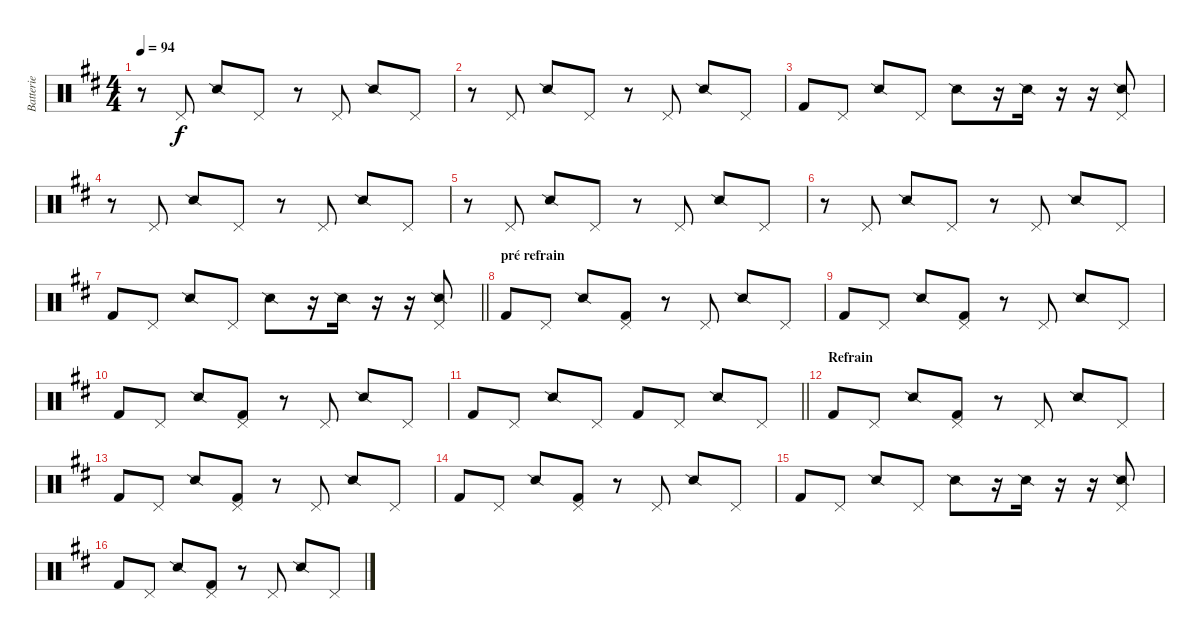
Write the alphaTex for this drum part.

\track ("Batterie" "Batterie") {instrument percussion}
\staff {score}
\articulation defaults
\ts (4 4)
\tempo 94
\clef neutral
\ks d
r.8{dy f} "Pedal Hi-Hat (hit)".8 "Snare (side stick) 2".8 "Pedal Hi-Hat (hit)".8 r.8 "Pedal Hi-Hat (hit)".8 "Snare (side stick) 2".8 "Pedal Hi-Hat (hit)".8 |
r.8 "Pedal Hi-Hat (hit)".8 "Snare (side stick) 2".8 "Pedal Hi-Hat (hit)".8 r.8 "Pedal Hi-Hat (hit)".8 "Snare (side stick) 2".8 "Pedal Hi-Hat (hit)".8 |
"Kick (hit) 2".8 "Pedal Hi-Hat (hit)".8 "Snare (side stick) 2".8 "Pedal Hi-Hat (hit)".8 "Snare (side stick) 2".8 r.16 "Snare (side stick) 2".16 r.16 r.16 ("Pedal Hi-Hat (hit)" "Snare (side stick) 2").8 |
r.8 "Pedal Hi-Hat (hit)".8 "Snare (side stick) 2".8 "Pedal Hi-Hat (hit)".8 r.8 "Pedal Hi-Hat (hit)".8 "Snare (side stick) 2".8 "Pedal Hi-Hat (hit)".8 |
r.8 "Pedal Hi-Hat (hit)".8 "Snare (side stick) 2".8 "Pedal Hi-Hat (hit)".8 r.8 "Pedal Hi-Hat (hit)".8 "Snare (side stick) 2".8 "Pedal Hi-Hat (hit)".8 |
r.8 "Pedal Hi-Hat (hit)".8 "Snare (side stick) 2".8 "Pedal Hi-Hat (hit)".8 r.8 "Pedal Hi-Hat (hit)".8 "Snare (side stick) 2".8 "Pedal Hi-Hat (hit)".8 |
\barLineRight lightlight "Kick (hit) 2".8 "Pedal Hi-Hat (hit)".8 "Snare (side stick) 2".8 "Pedal Hi-Hat (hit)".8 "Snare (side stick) 2".8
r.16 "Snare (side stick) 2".16 r.16 r.16 ("Pedal Hi-Hat (hit)" "Snare (side stick) 2").8 |
\section ("" "pré refrain")
"Kick (hit) 2".8 "Pedal Hi-Hat (hit)".8 "Snare (side stick) 2".8 ("Pedal Hi-Hat (hit)" "Kick (hit) 2").8 r.8 "Pedal Hi-Hat (hit)".8 "Snare (side stick) 2".8 "Pedal Hi-Hat (hit)".8 |
"Kick (hit) 2".8 "Pedal Hi-Hat (hit)".8 "Snare (side stick) 2".8 ("Pedal Hi-Hat (hit)" "Kick (hit) 2").8 r.8 "Pedal Hi-Hat (hit)".8 "Snare (side stick) 2".8 "Pedal Hi-Hat (hit)".8 |
"Kick (hit) 2".8 "Pedal Hi-Hat (hit)".8 "Snare (side stick) 2".8 ("Pedal Hi-Hat (hit)" "Kick (hit) 2").8 r.8 "Pedal Hi-Hat (hit)".8 "Snare (side stick) 2".8 "Pedal Hi-Hat (hit)".8 |
\barLineRight lightlight "Kick (hit) 2".8 "Pedal Hi-Hat (hit)".8 "Snare (side stick) 2".8 "Pedal Hi-Hat (hit)".8 "Kick (hit) 2".8 "Pedal Hi-Hat (hit)".8 "Snare (side stick) 2".8 "Pedal Hi-Hat (hit)".8
|
\section ("" "Refrain")
"Kick (hit) 2".8 "Pedal Hi-Hat (hit)".8 "Snare (side stick) 2".8 ("Pedal Hi-Hat (hit)" "Kick (hit) 2").8 r.8 "Pedal Hi-Hat (hit)".8 "Snare (side stick) 2".8 "Pedal Hi-Hat (hit)".8 |
"Kick (hit) 2".8 "Pedal Hi-Hat (hit)".8 "Snare (side stick) 2".8 ("Pedal Hi-Hat (hit)" "Kick (hit) 2").8 r.8 "Pedal Hi-Hat (hit)".8 "Snare (side stick) 2".8 "Pedal Hi-Hat (hit)".8 |
"Kick (hit) 2".8 "Pedal Hi-Hat (hit)".8 "Snare (side stick) 2".8 ("Pedal Hi-Hat (hit)" "Kick (hit) 2").8 r.8 "Pedal Hi-Hat (hit)".8 "Snare (side stick) 2".8 "Pedal Hi-Hat (hit)".8 |
"Kick (hit) 2".8 "Pedal Hi-Hat (hit)".8 "Snare (side stick) 2".8 "Pedal Hi-Hat (hit)".8 "Snare (side stick) 2".8 r.16 "Snare (side stick) 2".16 r.16 r.16 ("Pedal Hi-Hat (hit)" "Snare (side stick) 2").8 |
"Kick (hit) 2".8 "Pedal Hi-Hat (hit)".8 "Snare (side stick) 2".8 ("Pedal Hi-Hat (hit)" "Kick (hit) 2").8 r.8 "Pedal Hi-Hat (hit)".8 "Snare (side stick) 2".8 "Pedal Hi-Hat (hit)".8
